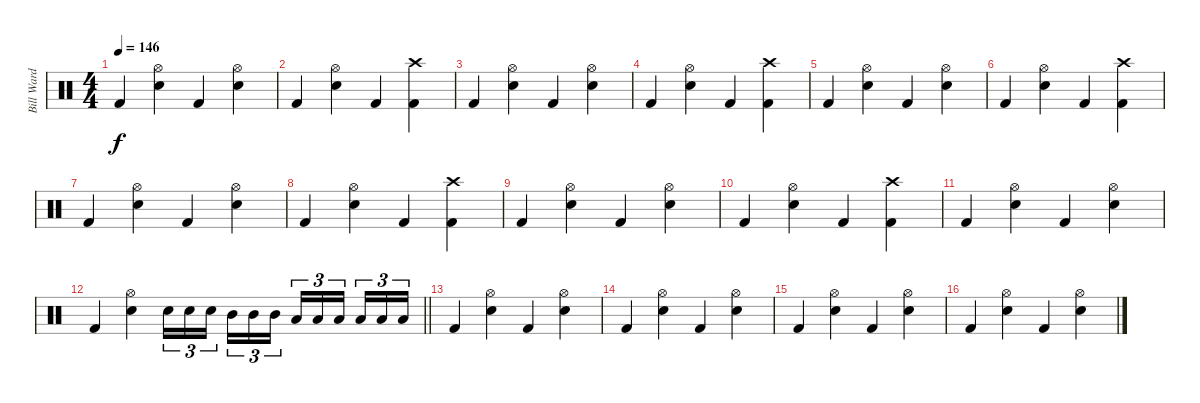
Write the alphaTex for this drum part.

\track ("Bill Ward" "Bill Ward") {instrument percussion}
\staff {score}
\articulation defaults
\ts (4 4)
\tempo 146
\clef neutral
\ks c "Kick (hit) 2".4{dy f}
("Hi-Hat (open)" "Snare (hit) 2").4 "Kick (hit) 2".4 ("Hi-Hat (open)" "Snare (hit) 2").4 |
"Kick (hit) 2".4 ("Hi-Hat (open)" "Snare (hit) 2").4 "Kick (hit) 2".4 ("Crash high (hit)" "Kick (hit) 2").4 |
"Kick (hit) 2".4 ("Hi-Hat (open)" "Snare (hit) 2").4 "Kick (hit) 2".4 ("Hi-Hat (open)" "Snare (hit) 2").4 |
"Kick (hit) 2".4 ("Hi-Hat (open)" "Snare (hit) 2").4 "Kick (hit) 2".4 ("Crash high (hit)" "Kick (hit) 2").4 |
"Kick (hit) 2".4 ("Hi-Hat (open)" "Snare (hit) 2").4 "Kick (hit) 2".4 ("Hi-Hat (open)" "Snare (hit) 2").4 |
"Kick (hit) 2".4 ("Hi-Hat (open)" "Snare (hit) 2").4 "Kick (hit) 2".4 ("Crash high (hit)" "Kick (hit) 2").4 |
"Kick (hit) 2".4 ("Hi-Hat (open)" "Snare (hit) 2").4 "Kick (hit) 2".4 ("Hi-Hat (open)" "Snare (hit) 2").4 |
"Kick (hit) 2".4 ("Hi-Hat (open)" "Snare (hit) 2").4 "Kick (hit) 2".4 ("Crash high (hit)" "Kick (hit) 2").4 |
"Kick (hit) 2".4 ("Hi-Hat (open)" "Snare (hit) 2").4 "Kick (hit) 2".4 ("Hi-Hat (open)" "Snare (hit) 2").4 |
"Kick (hit) 2".4 ("Hi-Hat (open)" "Snare (hit) 2").4 "Kick (hit) 2".4 ("Crash high (hit)" "Kick (hit) 2").4 |
"Kick (hit) 2".4 ("Hi-Hat (open)" "Snare (hit) 2").4 "Kick (hit) 2".4 ("Hi-Hat (open)" "Snare (hit) 2").4 |
\barLineRight lightlight "Kick (hit) 2".4
("Hi-Hat (open)" "Snare (hit) 2").4 "Snare (hit) 2".16{tu (3 2)} "Snare (hit) 2".16{tu (3 2)} "Snare (hit) 2".16{tu (3 2)} "Mid Tom (hit)".16{tu (3 2)} "Mid Tom (hit)".16{tu (3 2)} "Mid Tom (hit)".16{tu (3 2)} "Low Tom (hit)".16{tu (3 2)} "Low Tom (hit)".16{tu (3 2)} "Low Tom (hit)".16{tu (3 2)} "Low Floor Tom (hit)".16{tu (3 2)} "Low Floor Tom (hit)".16{tu (3 2)} "Low Floor Tom (hit)".16{tu (3 2)} |
"Kick (hit) 2".4 ("Hi-Hat (open)" "Snare (hit) 2").4 "Kick (hit) 2".4 ("Hi-Hat (open)" "Snare (hit) 2").4 |
"Kick (hit) 2".4 ("Hi-Hat (open)" "Snare (hit) 2").4 "Kick (hit) 2".4 ("Hi-Hat (open)" "Snare (hit) 2").4 |
"Kick (hit) 2".4 ("Hi-Hat (open)" "Snare (hit) 2").4 "Kick (hit) 2".4 ("Hi-Hat (open)" "Snare (hit) 2").4 |
"Kick (hit) 2".4 ("Hi-Hat (open)" "Snare (hit) 2").4 "Kick (hit) 2".4 ("Hi-Hat (open)" "Snare (hit) 2").4
